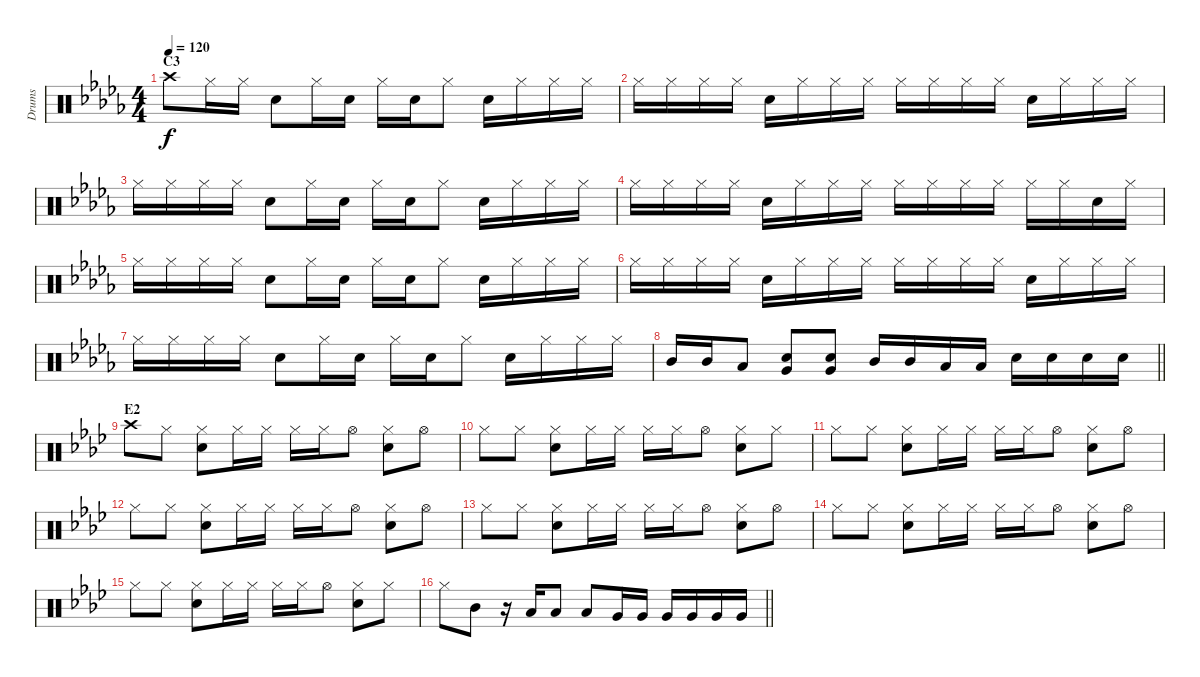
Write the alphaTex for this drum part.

\track ("Drums" "Drums") {instrument percussion}
\staff {score}
\articulation defaults
\ts (4 4)
\section ("" "C3")
\tempo 120
\clef neutral
\ks db "Crash high (hit)".8{dy f} "Hi-Hat (closed)".16 "Hi-Hat (closed)".16 "Snare (hit) 2".8 "Hi-Hat (closed)".16 "Snare (hit) 2".16 "Hi-Hat (closed)".16 "Snare (hit) 2".16 "Hi-Hat (closed)".8 "Snare (hit) 2".16 "Hi-Hat (closed)".16 "Hi-Hat (closed)".16 "Hi-Hat (closed)".16
|
"Hi-Hat (closed)".16 "Hi-Hat (closed)".16 "Hi-Hat (closed)".16 "Hi-Hat (closed)".16 "Snare (hit) 2".16 "Hi-Hat (closed)".16 "Hi-Hat (closed)".16 "Hi-Hat (closed)".16 "Hi-Hat (closed)".16 "Hi-Hat (closed)".16 "Hi-Hat (closed)".16 "Hi-Hat (closed)".16 "Snare (hit) 2".16 "Hi-Hat (closed)".16 "Hi-Hat (closed)".16 "Hi-Hat (closed)".16 |
"Hi-Hat (closed)".16 "Hi-Hat (closed)".16 "Hi-Hat (closed)".16 "Hi-Hat (closed)".16 "Snare (hit) 2".8 "Hi-Hat (closed)".16 "Snare (hit) 2".16 "Hi-Hat (closed)".16 "Snare (hit) 2".16 "Hi-Hat (closed)".8 "Snare (hit) 2".16 "Hi-Hat (closed)".16 "Hi-Hat (closed)".16 "Hi-Hat (closed)".16 |
"Hi-Hat (closed)".16 "Hi-Hat (closed)".16 "Hi-Hat (closed)".16 "Hi-Hat (closed)".16 "Snare (hit) 2".16 "Hi-Hat (closed)".16 "Hi-Hat (closed)".16 "Hi-Hat (closed)".16 "Hi-Hat (closed)".16 "Hi-Hat (closed)".16 "Hi-Hat (closed)".16 "Hi-Hat (closed)".16 "Hi-Hat (closed)".16 "Hi-Hat (closed)".16 "Snare (hit) 2".16 "Hi-Hat (closed)".16 |
"Hi-Hat (closed)".16 "Hi-Hat (closed)".16 "Hi-Hat (closed)".16 "Hi-Hat (closed)".16 "Snare (hit) 2".8 "Hi-Hat (closed)".16 "Snare (hit) 2".16 "Hi-Hat (closed)".16 "Snare (hit) 2".16 "Hi-Hat (closed)".8 "Snare (hit) 2".16 "Hi-Hat (closed)".16 "Hi-Hat (closed)".16 "Hi-Hat (closed)".16 |
"Hi-Hat (closed)".16 "Hi-Hat (closed)".16 "Hi-Hat (closed)".16 "Hi-Hat (closed)".16 "Snare (hit) 2".16 "Hi-Hat (closed)".16 "Hi-Hat (closed)".16 "Hi-Hat (closed)".16 "Hi-Hat (closed)".16 "Hi-Hat (closed)".16 "Hi-Hat (closed)".16 "Hi-Hat (closed)".16 "Snare (hit) 2".16 "Hi-Hat (closed)".16 "Hi-Hat (closed)".16 "Hi-Hat (closed)".16 |
"Hi-Hat (closed)".16 "Hi-Hat (closed)".16 "Hi-Hat (closed)".16 "Hi-Hat (closed)".16 "Snare (hit) 2".8 "Hi-Hat (closed)".16 "Snare (hit) 2".16 "Hi-Hat (closed)".16 "Snare (hit) 2".16 "Hi-Hat (closed)".8 "Snare (hit) 2".16 "Hi-Hat (closed)".16 "Hi-Hat (closed)".16 "Hi-Hat (closed)".16 |
\barLineRight lightlight "Mid Tom (hit)".16 "Mid Tom (hit)".16 "Low Tom (hit)".8
("Snare (hit) 2" "Very Low Tom (hit)").8 ("Snare (hit) 2" "Very Low Tom (hit)").8 "Mid Tom (hit)".16 "Mid Tom (hit)".16 "Low Tom (hit)".16 "Low Tom (hit)".16 "Snare (hit) 2".16 "Snare (hit) 2".16 "Snare (hit) 2".16 "Snare (hit) 2".16 |
\section ("" "E2")
\ks ab "Crash high (hit)".8 "Hi-Hat (closed)".8
("Hi-Hat (closed)" "Snare (hit) 2").8 "Hi-Hat (closed)".16 "Hi-Hat (closed)".16 "Hi-Hat (closed)".16 "Hi-Hat (closed)".16 "Hi-Hat (open)".8 ("Hi-Hat (closed)" "Snare (hit) 2").8 "Hi-Hat (open)".8 |
"Hi-Hat (closed)".8 "Hi-Hat (closed)".8 ("Hi-Hat (closed)" "Snare (hit) 2").8 "Hi-Hat (closed)".16 "Hi-Hat (closed)".16 "Hi-Hat (closed)".16 "Hi-Hat (closed)".16 "Hi-Hat (open)".8 ("Hi-Hat (closed)" "Snare (hit) 2").8 "Hi-Hat (closed)".8 |
"Hi-Hat (closed)".8 "Hi-Hat (closed)".8 ("Hi-Hat (closed)" "Snare (hit) 2").8 "Hi-Hat (closed)".16 "Hi-Hat (closed)".16 "Hi-Hat (closed)".16 "Hi-Hat (closed)".16 "Hi-Hat (open)".8 ("Hi-Hat (closed)" "Snare (hit) 2").8 "Hi-Hat (open)".8 |
"Hi-Hat (closed)".8 "Hi-Hat (closed)".8 ("Hi-Hat (closed)" "Snare (hit) 2").8 "Hi-Hat (closed)".16 "Hi-Hat (closed)".16 "Hi-Hat (closed)".16 "Hi-Hat (closed)".16 "Hi-Hat (open)".8 ("Hi-Hat (closed)" "Snare (hit) 2").8 "Hi-Hat (open)".8 |
"Hi-Hat (closed)".8 "Hi-Hat (closed)".8 ("Hi-Hat (closed)" "Snare (hit) 2").8 "Hi-Hat (closed)".16 "Hi-Hat (closed)".16 "Hi-Hat (closed)".16 "Hi-Hat (closed)".16 "Hi-Hat (open)".8 ("Hi-Hat (closed)" "Snare (hit) 2").8 "Hi-Hat (open)".8 |
"Hi-Hat (closed)".8 "Hi-Hat (closed)".8 ("Hi-Hat (closed)" "Snare (hit) 2").8 "Hi-Hat (closed)".16 "Hi-Hat (closed)".16 "Hi-Hat (closed)".16 "Hi-Hat (closed)".16 "Hi-Hat (open)".8 ("Hi-Hat (closed)" "Snare (hit) 2").8 "Hi-Hat (open)".8 |
"Hi-Hat (closed)".8 "Hi-Hat (closed)".8 ("Hi-Hat (closed)" "Snare (hit) 2").8 "Hi-Hat (closed)".16 "Hi-Hat (closed)".16 "Hi-Hat (closed)".16 "Hi-Hat (closed)".16 "Hi-Hat (open)".8 ("Hi-Hat (closed)" "Snare (hit) 2").8 "Hi-Hat (closed)".8 |
\barLineRight lightlight "Hi-Hat (closed)".8 "Mid Tom (hit)".8
r.16 "Low Tom (hit)".16 "Low Tom (hit)".8 "Low Tom (hit)".8 "Very Low Tom (hit)".16 "Very Low Tom (hit)".16 "Very Low Tom (hit)".16 "Very Low Tom (hit)".16 "Very Low Tom (hit)".16 "Very Low Tom (hit)".16
